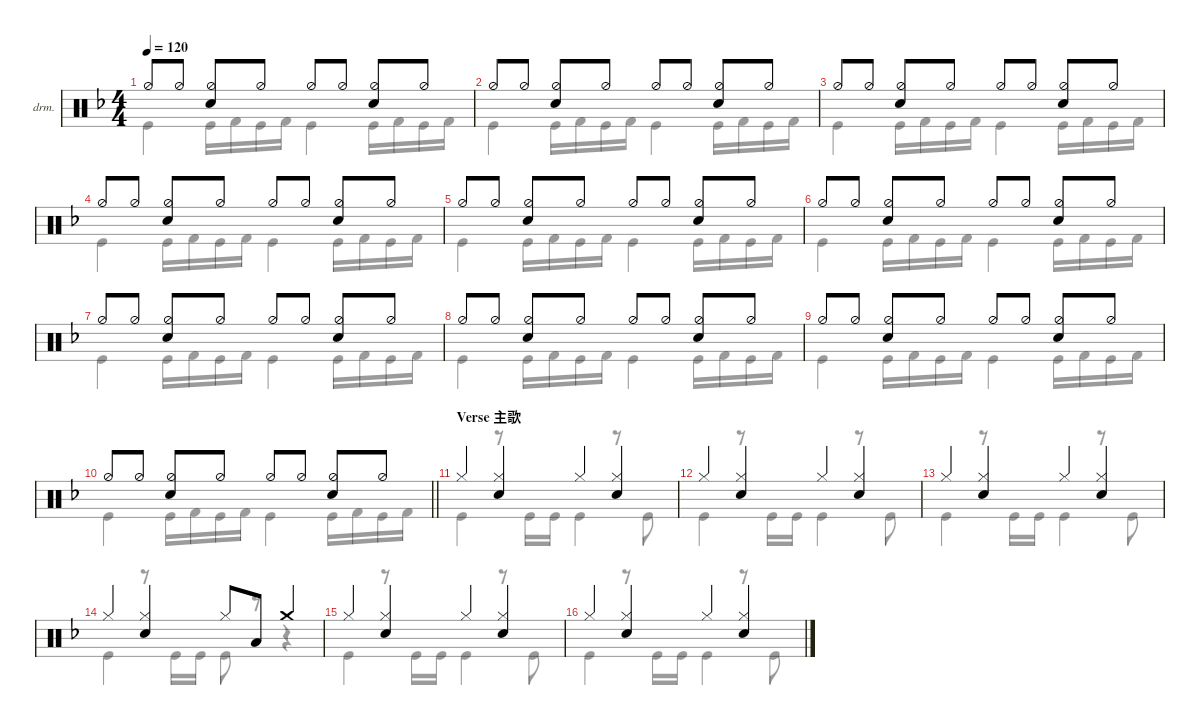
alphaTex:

\defaultSystemsLayout 4
\hideDynamics
\bracketExtendMode nobrackets
\firstSystemTrackNameOrientation horizontal
\track ("Drumkit" "drm.") {mute instrument percussion}
\staff {score}
\articulation defaults
\voice
\ts (4 4)
\tempo 120
\clef neutral
\ks dminor "Hi-Hat (half)"{acc forcenatural}.8{dy mf} "Hi-Hat (half)"{acc forcenatural}.8
("Hi-Hat (half)"{acc forcenatural} "Snare (hit) 2"{acc forcenatural}).8 "Hi-Hat (half)"{acc forcenatural}.8 "Hi-Hat (half)"{acc forcenatural}.8 "Hi-Hat (half)"{acc forcenatural}.8 ("Hi-Hat (half)"{acc forcenatural} "Snare (hit) 2"{acc forcenatural}).8 "Hi-Hat (half)"{acc forcenatural}.8 |
"Hi-Hat (half)"{acc forcenatural}.8 "Hi-Hat (half)"{acc forcenatural}.8 ("Hi-Hat (half)"{acc forcenatural} "Snare (hit) 2"{acc forcenatural}).8 "Hi-Hat (half)"{acc forcenatural}.8 "Hi-Hat (half)"{acc forcenatural}.8 "Hi-Hat (half)"{acc forcenatural}.8 ("Hi-Hat (half)"{acc forcenatural} "Snare (hit) 2"{acc forcenatural}).8 "Hi-Hat (half)"{acc forcenatural}.8 |
"Hi-Hat (half)"{acc forcenatural}.8 "Hi-Hat (half)"{acc forcenatural}.8 ("Hi-Hat (half)"{acc forcenatural} "Snare (hit) 2"{acc forcenatural}).8 "Hi-Hat (half)"{acc forcenatural}.8 "Hi-Hat (half)"{acc forcenatural}.8 "Hi-Hat (half)"{acc forcenatural}.8 ("Hi-Hat (half)"{acc forcenatural} "Snare (hit) 2"{acc forcenatural}).8 "Hi-Hat (half)"{acc forcenatural}.8 |
"Hi-Hat (half)"{acc forcenatural}.8 "Hi-Hat (half)"{acc forcenatural}.8 ("Hi-Hat (half)"{acc forcenatural} "Snare (hit) 2"{acc forcenatural}).8 "Hi-Hat (half)"{acc forcenatural}.8 "Hi-Hat (half)"{acc forcenatural}.8 "Hi-Hat (half)"{acc forcenatural}.8 ("Hi-Hat (half)"{acc forcenatural} "Snare (hit) 2"{acc forcenatural}).8 "Hi-Hat (half)"{acc forcenatural}.8 |
"Hi-Hat (half)"{acc forcenatural}.8 "Hi-Hat (half)"{acc forcenatural}.8 ("Hi-Hat (half)"{acc forcenatural} "Snare (hit) 2"{acc forcenatural}).8 "Hi-Hat (half)"{acc forcenatural}.8 "Hi-Hat (half)"{acc forcenatural}.8 "Hi-Hat (half)"{acc forcenatural}.8 ("Hi-Hat (half)"{acc forcenatural} "Snare (hit) 2"{acc forcenatural}).8 "Hi-Hat (half)"{acc forcenatural}.8 |
"Hi-Hat (half)"{acc forcenatural}.8 "Hi-Hat (half)"{acc forcenatural}.8 ("Hi-Hat (half)"{acc forcenatural} "Snare (hit) 2"{acc forcenatural}).8 "Hi-Hat (half)"{acc forcenatural}.8 "Hi-Hat (half)"{acc forcenatural}.8 "Hi-Hat (half)"{acc forcenatural}.8 ("Hi-Hat (half)"{acc forcenatural} "Snare (hit) 2"{acc forcenatural}).8 "Hi-Hat (half)"{acc forcenatural}.8 |
"Hi-Hat (half)"{acc forcenatural}.8 "Hi-Hat (half)"{acc forcenatural}.8 ("Hi-Hat (half)"{acc forcenatural} "Snare (hit) 2"{acc forcenatural}).8 "Hi-Hat (half)"{acc forcenatural}.8 "Hi-Hat (half)"{acc forcenatural}.8 "Hi-Hat (half)"{acc forcenatural}.8 ("Hi-Hat (half)"{acc forcenatural} "Snare (hit) 2"{acc forcenatural}).8 "Hi-Hat (half)"{acc forcenatural}.8 |
"Hi-Hat (half)"{acc forcenatural}.8 "Hi-Hat (half)"{acc forcenatural}.8 ("Hi-Hat (half)"{acc forcenatural} "Snare (hit) 2"{acc forcenatural}).8 "Hi-Hat (half)"{acc forcenatural}.8 "Hi-Hat (half)"{acc forcenatural}.8 "Hi-Hat (half)"{acc forcenatural}.8 ("Hi-Hat (half)"{acc forcenatural} "Snare (hit) 2"{acc forcenatural}).8 "Hi-Hat (half)"{acc forcenatural}.8 |
"Hi-Hat (half)"{acc forcenatural}.8 "Hi-Hat (half)"{acc forcenatural}.8 ("Hi-Hat (half)"{acc forcenatural} "Snare (hit) 2"{acc forcenatural}).8 "Hi-Hat (half)"{acc forcenatural}.8 "Hi-Hat (half)"{acc forcenatural}.8 "Hi-Hat (half)"{acc forcenatural}.8 ("Hi-Hat (half)"{acc forcenatural} "Snare (hit) 2"{acc forcenatural}).8 "Hi-Hat (half)"{acc forcenatural}.8 |
\barLineRight lightlight "Hi-Hat (half)"{acc forcenatural}.8 "Hi-Hat (half)"{acc forcenatural}.8
("Hi-Hat (half)"{acc forcenatural} "Snare (hit) 2"{acc forcenatural}).8 "Hi-Hat (half)"{acc forcenatural}.8 "Hi-Hat (half)"{acc forcenatural}.8 "Hi-Hat (half)"{acc forcenatural}.8 ("Hi-Hat (half)"{acc forcenatural} "Snare (hit) 2"{acc forcenatural}).8 "Hi-Hat (half)"{acc forcenatural}.8 |
\section ("" "Verse 主歌")
"Hi-Hat (closed)"{acc forcenatural}.4 ("Snare (hit) 2"{acc forcenatural} "Hi-Hat (closed)"{acc forcenatural}).4 "Hi-Hat (closed)"{acc forcenatural}.4 ("Hi-Hat (closed)"{acc forcenatural} "Snare (hit) 2"{acc forcenatural}).4 |
"Hi-Hat (closed)"{acc forcenatural}.4 ("Snare (hit) 2"{acc forcenatural} "Hi-Hat (closed)"{acc forcenatural}).4 "Hi-Hat (closed)"{acc forcenatural}.4 ("Hi-Hat (closed)"{acc forcenatural} "Snare (hit) 2"{acc forcenatural}).4 |
"Hi-Hat (closed)"{acc forcenatural}.4 ("Snare (hit) 2"{acc forcenatural} "Hi-Hat (closed)"{acc forcenatural}).4 "Hi-Hat (closed)"{acc forcenatural}.4 ("Hi-Hat (closed)"{acc forcenatural} "Snare (hit) 2"{acc forcenatural}).4 |
"Hi-Hat (closed)"{acc forcenatural}.4 ("Snare (hit) 2"{acc forcenatural} "Hi-Hat (closed)"{acc forcenatural}).4 "Hi-Hat (closed)"{acc forcenatural}.8 "Low Floor Tom (hit)"{acc forcenatural}.8 "Crash medium (hit)"{acc forcenatural}.4 |
"Hi-Hat (closed)"{acc forcenatural}.4 ("Snare (hit) 2"{acc forcenatural} "Hi-Hat (closed)"{acc forcenatural}).4 "Hi-Hat (closed)"{acc forcenatural}.4 ("Hi-Hat (closed)"{acc forcenatural} "Snare (hit) 2"{acc forcenatural}).4 |
"Hi-Hat (closed)"{acc forcenatural}.4 ("Snare (hit) 2"{acc forcenatural} "Hi-Hat (closed)"{acc forcenatural}).4 "Hi-Hat (closed)"{acc forcenatural}.4 ("Hi-Hat (closed)"{acc forcenatural} "Snare (hit) 2"{acc forcenatural}).4
\voice
\clef neutral
\ottava regular
\simile none
\ks dminor "Kick (hit)"{acc forcenatural}.4{dy mf} "Kick (hit)"{acc forcenatural}.16 "Kick (hit) 2"{acc forcenatural}.16 "Kick (hit)"{acc forcenatural}.16 "Kick (hit) 2"{acc forcenatural}.16 "Kick (hit)"{acc forcenatural}.4 "Kick (hit)"{acc forcenatural}.16 "Kick (hit) 2"{acc forcenatural}.16 "Kick (hit)"{acc forcenatural}.16 "Kick (hit) 2"{acc forcenatural}.16
|
"Kick (hit)"{acc forcenatural}.4 "Kick (hit)"{acc forcenatural}.16 "Kick (hit) 2"{acc forcenatural}.16 "Kick (hit)"{acc forcenatural}.16 "Kick (hit) 2"{acc forcenatural}.16 "Kick (hit)"{acc forcenatural}.4 "Kick (hit)"{acc forcenatural}.16 "Kick (hit) 2"{acc forcenatural}.16 "Kick (hit)"{acc forcenatural}.16 "Kick (hit) 2"{acc forcenatural}.16 |
"Kick (hit)"{acc forcenatural}.4 "Kick (hit)"{acc forcenatural}.16 "Kick (hit) 2"{acc forcenatural}.16 "Kick (hit)"{acc forcenatural}.16 "Kick (hit) 2"{acc forcenatural}.16 "Kick (hit)"{acc forcenatural}.4 "Kick (hit)"{acc forcenatural}.16 "Kick (hit) 2"{acc forcenatural}.16 "Kick (hit)"{acc forcenatural}.16 "Kick (hit) 2"{acc forcenatural}.16 |
"Kick (hit)"{acc forcenatural}.4 "Kick (hit)"{acc forcenatural}.16 "Kick (hit) 2"{acc forcenatural}.16 "Kick (hit)"{acc forcenatural}.16 "Kick (hit) 2"{acc forcenatural}.16 "Kick (hit)"{acc forcenatural}.4 "Kick (hit)"{acc forcenatural}.16 "Kick (hit) 2"{acc forcenatural}.16 "Kick (hit)"{acc forcenatural}.16 "Kick (hit) 2"{acc forcenatural}.16 |
"Kick (hit)"{acc forcenatural}.4 "Kick (hit)"{acc forcenatural}.16 "Kick (hit) 2"{acc forcenatural}.16 "Kick (hit)"{acc forcenatural}.16 "Kick (hit) 2"{acc forcenatural}.16 "Kick (hit)"{acc forcenatural}.4 "Kick (hit)"{acc forcenatural}.16 "Kick (hit) 2"{acc forcenatural}.16 "Kick (hit)"{acc forcenatural}.16 "Kick (hit) 2"{acc forcenatural}.16 |
"Kick (hit)"{acc forcenatural}.4 "Kick (hit)"{acc forcenatural}.16 "Kick (hit) 2"{acc forcenatural}.16 "Kick (hit)"{acc forcenatural}.16 "Kick (hit) 2"{acc forcenatural}.16 "Kick (hit)"{acc forcenatural}.4 "Kick (hit)"{acc forcenatural}.16 "Kick (hit) 2"{acc forcenatural}.16 "Kick (hit)"{acc forcenatural}.16 "Kick (hit) 2"{acc forcenatural}.16 |
"Kick (hit)"{acc forcenatural}.4 "Kick (hit)"{acc forcenatural}.16 "Kick (hit) 2"{acc forcenatural}.16 "Kick (hit)"{acc forcenatural}.16 "Kick (hit) 2"{acc forcenatural}.16 "Kick (hit)"{acc forcenatural}.4 "Kick (hit)"{acc forcenatural}.16 "Kick (hit) 2"{acc forcenatural}.16 "Kick (hit)"{acc forcenatural}.16 "Kick (hit) 2"{acc forcenatural}.16 |
"Kick (hit)"{acc forcenatural}.4 "Kick (hit)"{acc forcenatural}.16 "Kick (hit) 2"{acc forcenatural}.16 "Kick (hit)"{acc forcenatural}.16 "Kick (hit) 2"{acc forcenatural}.16 "Kick (hit)"{acc forcenatural}.4 "Kick (hit)"{acc forcenatural}.16 "Kick (hit) 2"{acc forcenatural}.16 "Kick (hit)"{acc forcenatural}.16 "Kick (hit) 2"{acc forcenatural}.16 |
"Kick (hit)"{acc forcenatural}.4 "Kick (hit)"{acc forcenatural}.16 "Kick (hit) 2"{acc forcenatural}.16 "Kick (hit)"{acc forcenatural}.16 "Kick (hit) 2"{acc forcenatural}.16 "Kick (hit)"{acc forcenatural}.4 "Kick (hit)"{acc forcenatural}.16 "Kick (hit) 2"{acc forcenatural}.16 "Kick (hit)"{acc forcenatural}.16 "Kick (hit) 2"{acc forcenatural}.16 |
\barLineRight lightlight "Kick (hit)"{acc forcenatural}.4 "Kick (hit)"{acc forcenatural}.16 "Kick (hit) 2"{acc forcenatural}.16 "Kick (hit)"{acc forcenatural}.16 "Kick (hit) 2"{acc forcenatural}.16 "Kick (hit)"{acc forcenatural}.4 "Kick (hit)"{acc forcenatural}.16 "Kick (hit) 2"{acc forcenatural}.16 "Kick (hit)"{acc forcenatural}.16 "Kick (hit) 2"{acc forcenatural}.16
|
"Kick (hit)"{acc forcenatural}.4 r.8 "Kick (hit)"{acc forcenatural}.16 "Kick (hit)"{acc forcenatural}.16 "Kick (hit)"{acc forcenatural}.4 r.8 "Kick (hit)"{acc forcenatural}.8 |
"Kick (hit)"{acc forcenatural}.4 r.8 "Kick (hit)"{acc forcenatural}.16 "Kick (hit)"{acc forcenatural}.16 "Kick (hit)"{acc forcenatural}.4 r.8 "Kick (hit)"{acc forcenatural}.8 |
"Kick (hit)"{acc forcenatural}.4 r.8 "Kick (hit)"{acc forcenatural}.16 "Kick (hit)"{acc forcenatural}.16 "Kick (hit)"{acc forcenatural}.4 r.8 "Kick (hit)"{acc forcenatural}.8 |
"Kick (hit)"{acc forcenatural}.4 r.8 "Kick (hit)"{acc forcenatural}.16 "Kick (hit)"{acc forcenatural}.16 "Kick (hit)"{acc forcenatural}.8 r.8 r.4 |
"Kick (hit)"{acc forcenatural}.4 r.8 "Kick (hit)"{acc forcenatural}.16 "Kick (hit)"{acc forcenatural}.16 "Kick (hit)"{acc forcenatural}.4 r.8 "Kick (hit)"{acc forcenatural}.8 |
"Kick (hit)"{acc forcenatural}.4 r.8 "Kick (hit)"{acc forcenatural}.16 "Kick (hit)"{acc forcenatural}.16 "Kick (hit)"{acc forcenatural}.4 r.8 "Kick (hit)"{acc forcenatural}.8
